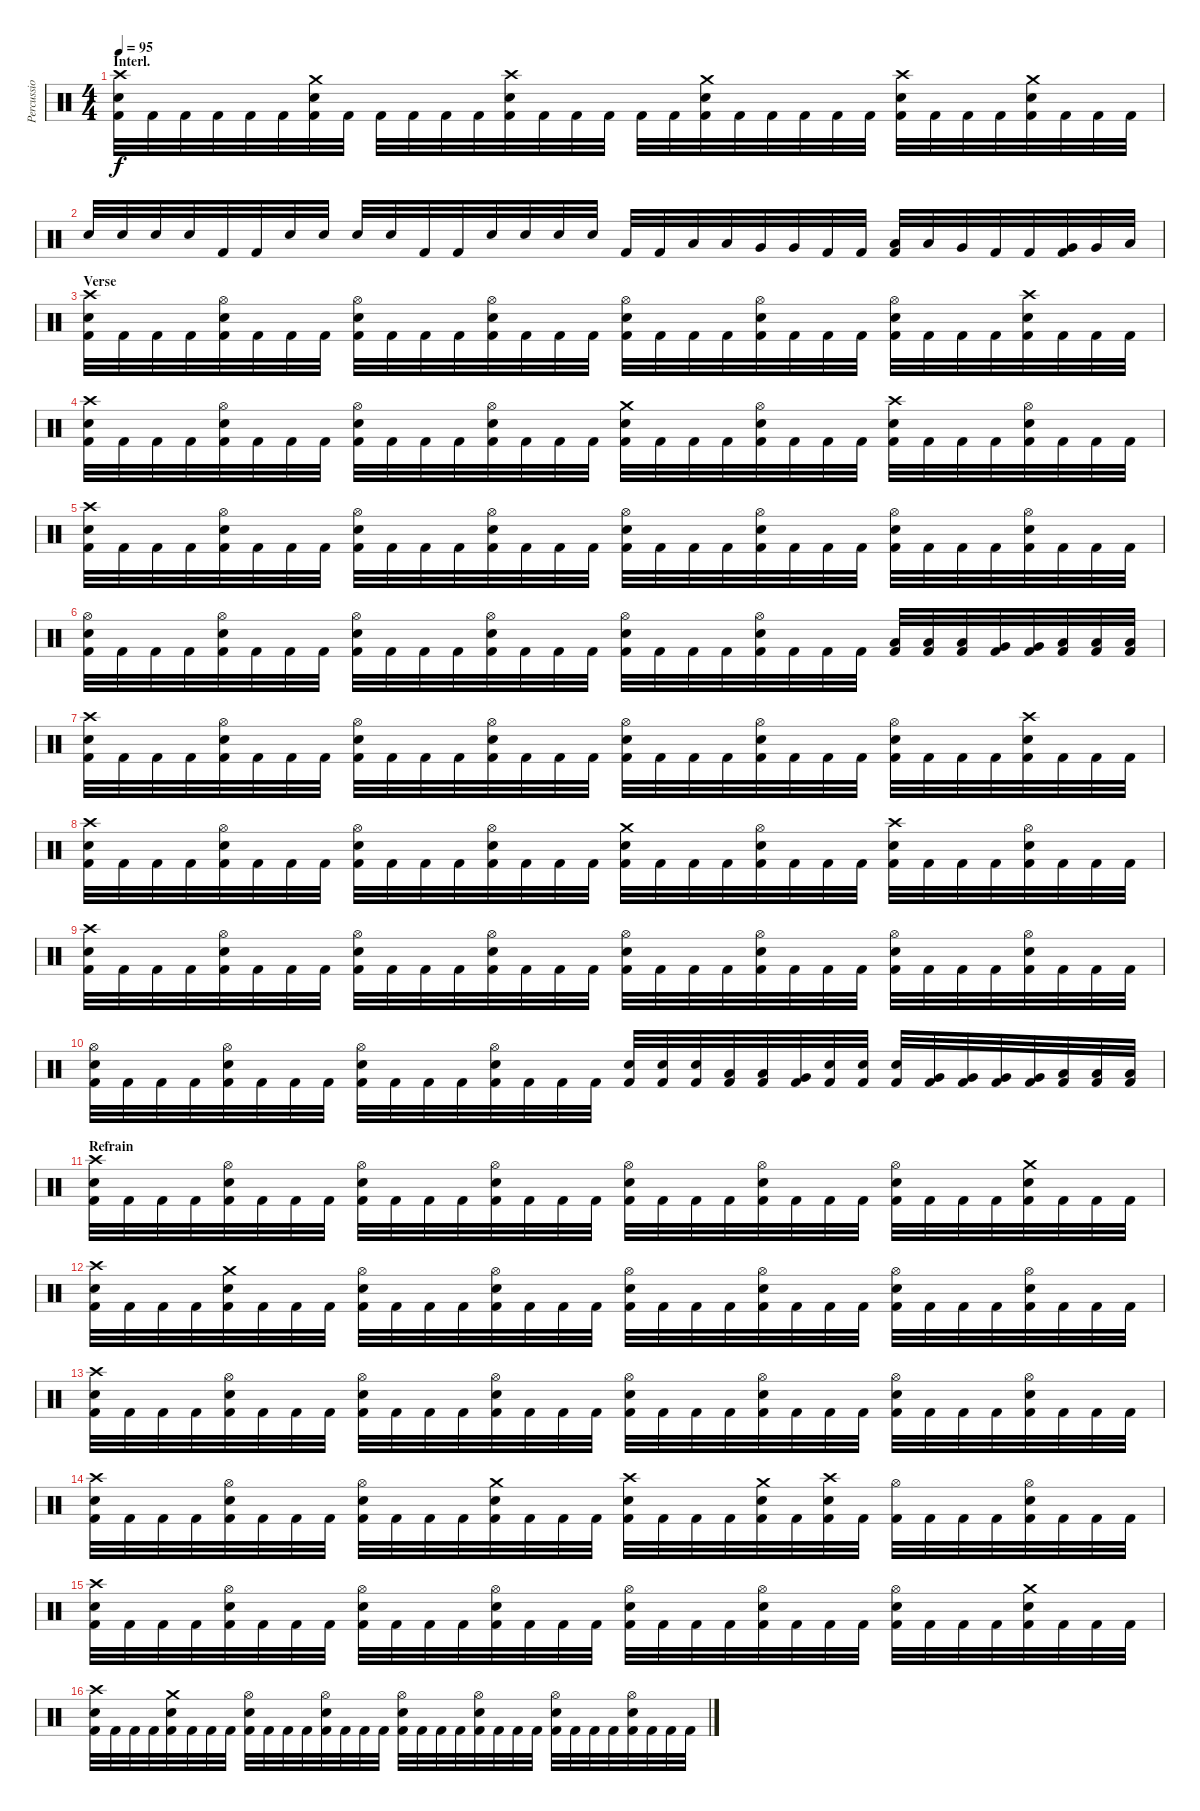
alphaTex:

\track (" Percussions" " Percussio") {instrument percussion}
\staff {score}
\articulation defaults
\ts (4 4)
\section ("" "Interl.")
\tempo 95
\clef neutral
\ks c
("Crash high (hit)" "Electric Snare (hit)" "Kick (hit) 2").32{dy f} "Kick (hit) 2".32 "Kick (hit) 2".32 "Kick (hit) 2".32 "Kick (hit) 2".32 "Kick (hit) 2".32 ("Crash medium (hit)" "Electric Snare (hit)" "Kick (hit) 2").32 "Kick (hit) 2".32 "Kick (hit) 2".32 "Kick (hit) 2".32 "Kick (hit) 2".32 "Kick (hit) 2".32 ("Crash high (hit)" "Electric Snare (hit)" "Kick (hit) 2").32 "Kick (hit) 2".32 "Kick (hit) 2".32 "Kick (hit) 2".32 "Kick (hit) 2".32 "Kick (hit) 2".32 ("Crash medium (hit)" "Electric Snare (hit)" "Kick (hit) 2").32 "Kick (hit) 2".32 "Kick (hit) 2".32 "Kick (hit) 2".32 "Kick (hit) 2".32 "Kick (hit) 2".32 ("Crash high (hit)" "Electric Snare (hit)" "Kick (hit) 2").32 "Kick (hit) 2".32 "Kick (hit) 2".32 "Kick (hit) 2".32 ("Crash medium (hit)" "Electric Snare (hit)" "Kick (hit) 2").32 "Kick (hit) 2".32 "Kick (hit) 2".32 "Kick (hit) 2".32 |
"Electric Snare (hit)".32 "Electric Snare (hit)".32 "Electric Snare (hit)".32 "Electric Snare (hit)".32 "Kick (hit) 2".32 "Kick (hit) 2".32 "Electric Snare (hit)".32 "Electric Snare (hit)".32 "Electric Snare (hit)".32 "Electric Snare (hit)".32 "Kick (hit) 2".32 "Kick (hit) 2".32 "Electric Snare (hit)".32 "Electric Snare (hit)".32 "Electric Snare (hit)".32 "Electric Snare (hit)".32 "Kick (hit) 2".32 "Kick (hit) 2".32 "Low Tom (hit)".32 "Low Tom (hit)".32 "Very Low Tom (hit)".32 "Very Low Tom (hit)".32 "Kick (hit) 2".32 "Kick (hit) 2".32 ("Low Tom (hit)" "Kick (hit) 2").32 "Low Tom (hit)".32 "Very Low Tom (hit)".32 "Kick (hit) 2".32 "Kick (hit) 2".32 ("Very Low Tom (hit)" "Kick (hit) 2").32 "Very Low Tom (hit)".32 "Low Floor Tom (hit)".32 |
\section ("" "Verse")
("Crash high (hit)" "Electric Snare (hit)" "Kick (hit) 2").32 "Kick (hit) 2".32 "Kick (hit) 2".32 "Kick (hit) 2".32 ("Hi-Hat (open)" "Electric Snare (hit)" "Kick (hit) 2").32 "Kick (hit) 2".32 "Kick (hit) 2".32 "Kick (hit) 2".32 ("Hi-Hat (open)" "Electric Snare (hit)" "Kick (hit) 2").32 "Kick (hit) 2".32 "Kick (hit) 2".32 "Kick (hit) 2".32 ("Hi-Hat (open)" "Electric Snare (hit)" "Kick (hit) 2").32 "Kick (hit) 2".32 "Kick (hit) 2".32 "Kick (hit) 2".32 ("Hi-Hat (open)" "Electric Snare (hit)" "Kick (hit) 2").32 "Kick (hit) 2".32 "Kick (hit) 2".32 "Kick (hit) 2".32 ("Hi-Hat (open)" "Electric Snare (hit)" "Kick (hit) 2").32 "Kick (hit) 2".32 "Kick (hit) 2".32 "Kick (hit) 2".32 ("Hi-Hat (open)" "Electric Snare (hit)" "Kick (hit) 2").32 "Kick (hit) 2".32 "Kick (hit) 2".32 "Kick (hit) 2".32 ("Crash high (hit)" "Electric Snare (hit)" "Kick (hit) 2").32 "Kick (hit) 2".32 "Kick (hit) 2".32 "Kick (hit) 2".32 |
("Crash high (hit)" "Electric Snare (hit)" "Kick (hit) 2").32 "Kick (hit) 2".32 "Kick (hit) 2".32 "Kick (hit) 2".32 ("Hi-Hat (open)" "Electric Snare (hit)" "Kick (hit) 2").32 "Kick (hit) 2".32 "Kick (hit) 2".32 "Kick (hit) 2".32 ("Hi-Hat (open)" "Electric Snare (hit)" "Kick (hit) 2").32 "Kick (hit) 2".32 "Kick (hit) 2".32 "Kick (hit) 2".32 ("Hi-Hat (open)" "Electric Snare (hit)" "Kick (hit) 2").32 "Kick (hit) 2".32 "Kick (hit) 2".32 "Kick (hit) 2".32 ("Crash medium (hit)" "Electric Snare (hit)" "Kick (hit) 2").32 "Kick (hit) 2".32 "Kick (hit) 2".32 "Kick (hit) 2".32 ("Hi-Hat (open)" "Electric Snare (hit)" "Kick (hit) 2").32 "Kick (hit) 2".32 "Kick (hit) 2".32 "Kick (hit) 2".32 ("Crash high (hit)" "Electric Snare (hit)" "Kick (hit) 2").32 "Kick (hit) 2".32 "Kick (hit) 2".32 "Kick (hit) 2".32 ("Hi-Hat (open)" "Electric Snare (hit)" "Kick (hit) 2").32 "Kick (hit) 2".32 "Kick (hit) 2".32 "Kick (hit) 2".32 |
("Crash high (hit)" "Electric Snare (hit)" "Kick (hit) 2").32 "Kick (hit) 2".32 "Kick (hit) 2".32 "Kick (hit) 2".32 ("Hi-Hat (open)" "Electric Snare (hit)" "Kick (hit) 2").32 "Kick (hit) 2".32 "Kick (hit) 2".32 "Kick (hit) 2".32 ("Hi-Hat (open)" "Electric Snare (hit)" "Kick (hit) 2").32 "Kick (hit) 2".32 "Kick (hit) 2".32 "Kick (hit) 2".32 ("Hi-Hat (open)" "Electric Snare (hit)" "Kick (hit) 2").32 "Kick (hit) 2".32 "Kick (hit) 2".32 "Kick (hit) 2".32 ("Hi-Hat (open)" "Electric Snare (hit)" "Kick (hit) 2").32 "Kick (hit) 2".32 "Kick (hit) 2".32 "Kick (hit) 2".32 ("Hi-Hat (open)" "Electric Snare (hit)" "Kick (hit) 2").32 "Kick (hit) 2".32 "Kick (hit) 2".32 "Kick (hit) 2".32 ("Hi-Hat (open)" "Electric Snare (hit)" "Kick (hit) 2").32 "Kick (hit) 2".32 "Kick (hit) 2".32 "Kick (hit) 2".32 ("Hi-Hat (open)" "Electric Snare (hit)" "Kick (hit) 2").32 "Kick (hit) 2".32 "Kick (hit) 2".32 "Kick (hit) 2".32 |
("Hi-Hat (open)" "Electric Snare (hit)" "Kick (hit) 2").32 "Kick (hit) 2".32 "Kick (hit) 2".32 "Kick (hit) 2".32 ("Hi-Hat (open)" "Electric Snare (hit)" "Kick (hit) 2").32 "Kick (hit) 2".32 "Kick (hit) 2".32 "Kick (hit) 2".32 ("Hi-Hat (open)" "Electric Snare (hit)" "Kick (hit) 2").32 "Kick (hit) 2".32 "Kick (hit) 2".32 "Kick (hit) 2".32 ("Hi-Hat (open)" "Electric Snare (hit)" "Kick (hit) 2").32 "Kick (hit) 2".32 "Kick (hit) 2".32 "Kick (hit) 2".32 ("Hi-Hat (open)" "Electric Snare (hit)" "Kick (hit) 2").32 "Kick (hit) 2".32 "Kick (hit) 2".32 "Kick (hit) 2".32 ("Hi-Hat (open)" "Electric Snare (hit)" "Kick (hit) 2").32 "Kick (hit) 2".32 "Kick (hit) 2".32 "Kick (hit) 2".32 ("Low Tom (hit)" "Kick (hit) 2").32 ("Low Tom (hit)" "Kick (hit) 2").32 ("Low Tom (hit)" "Kick (hit) 2").32 ("Very Low Tom (hit)" "Kick (hit) 2").32 ("Very Low Tom (hit)" "Kick (hit) 2").32 ("Low Floor Tom (hit)" "Kick (hit) 2").32 ("Low Floor Tom (hit)" "Kick (hit) 2").32 ("Low Floor Tom (hit)" "Kick (hit) 2").32 |
("Crash high (hit)" "Electric Snare (hit)" "Kick (hit) 2").32 "Kick (hit) 2".32 "Kick (hit) 2".32 "Kick (hit) 2".32 ("Hi-Hat (open)" "Electric Snare (hit)" "Kick (hit) 2").32 "Kick (hit) 2".32 "Kick (hit) 2".32 "Kick (hit) 2".32 ("Hi-Hat (open)" "Electric Snare (hit)" "Kick (hit) 2").32 "Kick (hit) 2".32 "Kick (hit) 2".32 "Kick (hit) 2".32 ("Hi-Hat (open)" "Electric Snare (hit)" "Kick (hit) 2").32 "Kick (hit) 2".32 "Kick (hit) 2".32 "Kick (hit) 2".32 ("Hi-Hat (open)" "Electric Snare (hit)" "Kick (hit) 2").32 "Kick (hit) 2".32 "Kick (hit) 2".32 "Kick (hit) 2".32 ("Hi-Hat (open)" "Electric Snare (hit)" "Kick (hit) 2").32 "Kick (hit) 2".32 "Kick (hit) 2".32 "Kick (hit) 2".32 ("Hi-Hat (open)" "Electric Snare (hit)" "Kick (hit) 2").32 "Kick (hit) 2".32 "Kick (hit) 2".32 "Kick (hit) 2".32 ("Crash high (hit)" "Electric Snare (hit)" "Kick (hit) 2").32 "Kick (hit) 2".32 "Kick (hit) 2".32 "Kick (hit) 2".32 |
("Crash high (hit)" "Electric Snare (hit)" "Kick (hit) 2").32 "Kick (hit) 2".32 "Kick (hit) 2".32 "Kick (hit) 2".32 ("Hi-Hat (open)" "Electric Snare (hit)" "Kick (hit) 2").32 "Kick (hit) 2".32 "Kick (hit) 2".32 "Kick (hit) 2".32 ("Hi-Hat (open)" "Electric Snare (hit)" "Kick (hit) 2").32 "Kick (hit) 2".32 "Kick (hit) 2".32 "Kick (hit) 2".32 ("Hi-Hat (open)" "Electric Snare (hit)" "Kick (hit) 2").32 "Kick (hit) 2".32 "Kick (hit) 2".32 "Kick (hit) 2".32 ("Crash medium (hit)" "Electric Snare (hit)" "Kick (hit) 2").32 "Kick (hit) 2".32 "Kick (hit) 2".32 "Kick (hit) 2".32 ("Hi-Hat (open)" "Electric Snare (hit)" "Kick (hit) 2").32 "Kick (hit) 2".32 "Kick (hit) 2".32 "Kick (hit) 2".32 ("Crash high (hit)" "Electric Snare (hit)" "Kick (hit) 2").32 "Kick (hit) 2".32 "Kick (hit) 2".32 "Kick (hit) 2".32 ("Hi-Hat (open)" "Electric Snare (hit)" "Kick (hit) 2").32 "Kick (hit) 2".32 "Kick (hit) 2".32 "Kick (hit) 2".32 |
("Crash high (hit)" "Electric Snare (hit)" "Kick (hit) 2").32 "Kick (hit) 2".32 "Kick (hit) 2".32 "Kick (hit) 2".32 ("Hi-Hat (open)" "Electric Snare (hit)" "Kick (hit) 2").32 "Kick (hit) 2".32 "Kick (hit) 2".32 "Kick (hit) 2".32 ("Hi-Hat (open)" "Electric Snare (hit)" "Kick (hit) 2").32 "Kick (hit) 2".32 "Kick (hit) 2".32 "Kick (hit) 2".32 ("Hi-Hat (open)" "Electric Snare (hit)" "Kick (hit) 2").32 "Kick (hit) 2".32 "Kick (hit) 2".32 "Kick (hit) 2".32 ("Hi-Hat (open)" "Electric Snare (hit)" "Kick (hit) 2").32 "Kick (hit) 2".32 "Kick (hit) 2".32 "Kick (hit) 2".32 ("Hi-Hat (open)" "Electric Snare (hit)" "Kick (hit) 2").32 "Kick (hit) 2".32 "Kick (hit) 2".32 "Kick (hit) 2".32 ("Hi-Hat (open)" "Electric Snare (hit)" "Kick (hit) 2").32 "Kick (hit) 2".32 "Kick (hit) 2".32 "Kick (hit) 2".32 ("Hi-Hat (open)" "Electric Snare (hit)" "Kick (hit) 2").32 "Kick (hit) 2".32 "Kick (hit) 2".32 "Kick (hit) 2".32 |
("Hi-Hat (open)" "Electric Snare (hit)" "Kick (hit) 2").32 "Kick (hit) 2".32 "Kick (hit) 2".32 "Kick (hit) 2".32 ("Hi-Hat (open)" "Electric Snare (hit)" "Kick (hit) 2").32 "Kick (hit) 2".32 "Kick (hit) 2".32 "Kick (hit) 2".32 ("Hi-Hat (open)" "Electric Snare (hit)" "Kick (hit) 2").32 "Kick (hit) 2".32 "Kick (hit) 2".32 "Kick (hit) 2".32 ("Hi-Hat (open)" "Electric Snare (hit)" "Kick (hit) 2").32 "Kick (hit) 2".32 "Kick (hit) 2".32 "Kick (hit) 2".32 ("Electric Snare (hit)" "Kick (hit) 2").32 ("Electric Snare (hit)" "Kick (hit) 2").32 ("Electric Snare (hit)" "Kick (hit) 2").32 ("Low Tom (hit)" "Kick (hit) 2").32 ("Low Tom (hit)" "Kick (hit) 2").32 ("Very Low Tom (hit)" "Kick (hit) 2").32 ("Electric Snare (hit)" "Kick (hit) 2").32 ("Electric Snare (hit)" "Kick (hit) 2").32 ("Electric Snare (hit)" "Kick (hit) 2").32 ("Very Low Tom (hit)" "Kick (hit) 2").32 ("Very Low Tom (hit)" "Kick (hit) 2").32 ("Very Low Tom (hit)" "Kick (hit) 2").32 ("Very Low Tom (hit)" "Kick (hit) 2").32 ("Low Floor Tom (hit)" "Kick (hit) 2").32 ("Low Floor Tom (hit)" "Kick (hit) 2").32 ("Low Floor Tom (hit)" "Kick (hit) 2").32 |
\section ("" "Refrain")
("Crash high (hit)" "Electric Snare (hit)" "Kick (hit) 2").32 "Kick (hit) 2".32 "Kick (hit) 2".32 "Kick (hit) 2".32 ("Hi-Hat (open)" "Electric Snare (hit)" "Kick (hit) 2").32 "Kick (hit) 2".32 "Kick (hit) 2".32 "Kick (hit) 2".32 ("Hi-Hat (open)" "Electric Snare (hit)" "Kick (hit) 2").32 "Kick (hit) 2".32 "Kick (hit) 2".32 "Kick (hit) 2".32 ("Hi-Hat (open)" "Electric Snare (hit)" "Kick (hit) 2").32 "Kick (hit) 2".32 "Kick (hit) 2".32 "Kick (hit) 2".32 ("Hi-Hat (open)" "Electric Snare (hit)" "Kick (hit) 2").32 "Kick (hit) 2".32 "Kick (hit) 2".32 "Kick (hit) 2".32 ("Hi-Hat (open)" "Electric Snare (hit)" "Kick (hit) 2").32 "Kick (hit) 2".32 "Kick (hit) 2".32 "Kick (hit) 2".32 ("Hi-Hat (open)" "Electric Snare (hit)" "Kick (hit) 2").32 "Kick (hit) 2".32 "Kick (hit) 2".32 "Kick (hit) 2".32 ("Crash medium (hit)" "Electric Snare (hit)" "Kick (hit) 2").32 "Kick (hit) 2".32 "Kick (hit) 2".32 "Kick (hit) 2".32 |
("Crash high (hit)" "Electric Snare (hit)" "Kick (hit) 2").32 "Kick (hit) 2".32 "Kick (hit) 2".32 "Kick (hit) 2".32 ("Crash medium (hit)" "Electric Snare (hit)" "Kick (hit) 2").32 "Kick (hit) 2".32 "Kick (hit) 2".32 "Kick (hit) 2".32 ("Hi-Hat (open)" "Electric Snare (hit)" "Kick (hit) 2").32 "Kick (hit) 2".32 "Kick (hit) 2".32 "Kick (hit) 2".32 ("Hi-Hat (open)" "Electric Snare (hit)" "Kick (hit) 2").32 "Kick (hit) 2".32 "Kick (hit) 2".32 "Kick (hit) 2".32 ("Hi-Hat (open)" "Electric Snare (hit)" "Kick (hit) 2").32 "Kick (hit) 2".32 "Kick (hit) 2".32 "Kick (hit) 2".32 ("Hi-Hat (open)" "Electric Snare (hit)" "Kick (hit) 2").32 "Kick (hit) 2".32 "Kick (hit) 2".32 "Kick (hit) 2".32 ("Hi-Hat (open)" "Electric Snare (hit)" "Kick (hit) 2").32 "Kick (hit) 2".32 "Kick (hit) 2".32 "Kick (hit) 2".32 ("Hi-Hat (open)" "Electric Snare (hit)" "Kick (hit) 2").32 "Kick (hit) 2".32 "Kick (hit) 2".32 "Kick (hit) 2".32 |
("Crash high (hit)" "Electric Snare (hit)" "Kick (hit) 2").32 "Kick (hit) 2".32 "Kick (hit) 2".32 "Kick (hit) 2".32 ("Hi-Hat (open)" "Electric Snare (hit)" "Kick (hit) 2").32 "Kick (hit) 2".32 "Kick (hit) 2".32 "Kick (hit) 2".32 ("Hi-Hat (open)" "Electric Snare (hit)" "Kick (hit) 2").32 "Kick (hit) 2".32 "Kick (hit) 2".32 "Kick (hit) 2".32 ("Hi-Hat (open)" "Electric Snare (hit)" "Kick (hit) 2").32 "Kick (hit) 2".32 "Kick (hit) 2".32 "Kick (hit) 2".32 ("Hi-Hat (open)" "Electric Snare (hit)" "Kick (hit) 2").32 "Kick (hit) 2".32 "Kick (hit) 2".32 "Kick (hit) 2".32 ("Hi-Hat (open)" "Electric Snare (hit)" "Kick (hit) 2").32 "Kick (hit) 2".32 "Kick (hit) 2".32 "Kick (hit) 2".32 ("Hi-Hat (open)" "Electric Snare (hit)" "Kick (hit) 2").32 "Kick (hit) 2".32 "Kick (hit) 2".32 "Kick (hit) 2".32 ("Hi-Hat (open)" "Electric Snare (hit)" "Kick (hit) 2").32 "Kick (hit) 2".32 "Kick (hit) 2".32 "Kick (hit) 2".32 |
("Crash high (hit)" "Electric Snare (hit)" "Kick (hit) 2").32 "Kick (hit) 2".32 "Kick (hit) 2".32 "Kick (hit) 2".32 ("Hi-Hat (open)" "Electric Snare (hit)" "Kick (hit) 2").32 "Kick (hit) 2".32 "Kick (hit) 2".32 "Kick (hit) 2".32 ("Hi-Hat (open)" "Electric Snare (hit)" "Kick (hit) 2").32 "Kick (hit) 2".32 "Kick (hit) 2".32 "Kick (hit) 2".32 ("Crash medium (hit)" "Electric Snare (hit)" "Kick (hit) 2").32 "Kick (hit) 2".32 "Kick (hit) 2".32 "Kick (hit) 2".32 ("Crash high (hit)" "Electric Snare (hit)" "Kick (hit) 2").32 "Kick (hit) 2".32 "Kick (hit) 2".32 "Kick (hit) 2".32 ("Crash medium (hit)" "Electric Snare (hit)" "Kick (hit) 2").32 "Kick (hit) 2".32 ("Crash high (hit)" "Electric Snare (hit)" "Kick (hit) 2").32 "Kick (hit) 2".32 ("Hi-Hat (open)" "Kick (hit) 2").32 "Kick (hit) 2".32 "Kick (hit) 2".32 "Kick (hit) 2".32 ("Hi-Hat (open)" "Electric Snare (hit)" "Kick (hit) 2").32 "Kick (hit) 2".32 "Kick (hit) 2".32 "Kick (hit) 2".32 |
("Crash high (hit)" "Electric Snare (hit)" "Kick (hit) 2").32 "Kick (hit) 2".32 "Kick (hit) 2".32 "Kick (hit) 2".32 ("Hi-Hat (open)" "Electric Snare (hit)" "Kick (hit) 2").32 "Kick (hit) 2".32 "Kick (hit) 2".32 "Kick (hit) 2".32 ("Hi-Hat (open)" "Electric Snare (hit)" "Kick (hit) 2").32 "Kick (hit) 2".32 "Kick (hit) 2".32 "Kick (hit) 2".32 ("Hi-Hat (open)" "Electric Snare (hit)" "Kick (hit) 2").32 "Kick (hit) 2".32 "Kick (hit) 2".32 "Kick (hit) 2".32 ("Hi-Hat (open)" "Electric Snare (hit)" "Kick (hit) 2").32 "Kick (hit) 2".32 "Kick (hit) 2".32 "Kick (hit) 2".32 ("Hi-Hat (open)" "Electric Snare (hit)" "Kick (hit) 2").32 "Kick (hit) 2".32 "Kick (hit) 2".32 "Kick (hit) 2".32 ("Hi-Hat (open)" "Electric Snare (hit)" "Kick (hit) 2").32 "Kick (hit) 2".32 "Kick (hit) 2".32 "Kick (hit) 2".32 ("Crash medium (hit)" "Electric Snare (hit)" "Kick (hit) 2").32 "Kick (hit) 2".32 "Kick (hit) 2".32 "Kick (hit) 2".32 |
("Crash high (hit)" "Electric Snare (hit)" "Kick (hit) 2").32 "Kick (hit) 2".32 "Kick (hit) 2".32 "Kick (hit) 2".32 ("Crash medium (hit)" "Electric Snare (hit)" "Kick (hit) 2").32 "Kick (hit) 2".32 "Kick (hit) 2".32 "Kick (hit) 2".32 ("Hi-Hat (open)" "Electric Snare (hit)" "Kick (hit) 2").32 "Kick (hit) 2".32 "Kick (hit) 2".32 "Kick (hit) 2".32 ("Hi-Hat (open)" "Electric Snare (hit)" "Kick (hit) 2").32 "Kick (hit) 2".32 "Kick (hit) 2".32 "Kick (hit) 2".32 ("Hi-Hat (open)" "Electric Snare (hit)" "Kick (hit) 2").32 "Kick (hit) 2".32 "Kick (hit) 2".32 "Kick (hit) 2".32 ("Hi-Hat (open)" "Electric Snare (hit)" "Kick (hit) 2").32 "Kick (hit) 2".32 "Kick (hit) 2".32 "Kick (hit) 2".32 ("Hi-Hat (open)" "Electric Snare (hit)" "Kick (hit) 2").32 "Kick (hit) 2".32 "Kick (hit) 2".32 "Kick (hit) 2".32 ("Hi-Hat (open)" "Electric Snare (hit)" "Kick (hit) 2").32 "Kick (hit) 2".32 "Kick (hit) 2".32 "Kick (hit) 2".32
